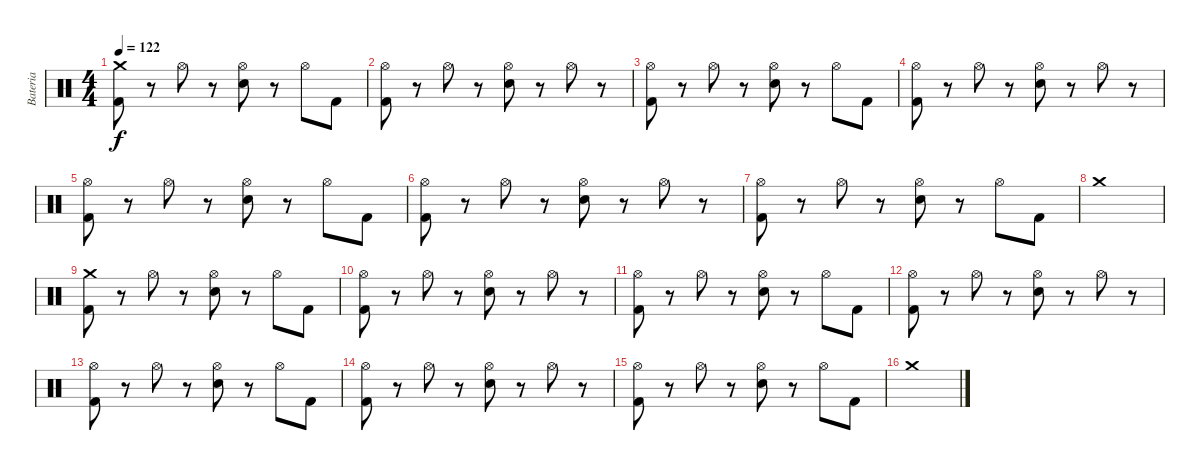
\track ("Bateria" "Bateria") {instrument percussion}
\staff {score}
\articulation defaults
\ts (4 4)
\tempo 122
\clef neutral
\ks c
("Crash medium (hit)" "Kick (hit) 2").8{dy f} r.8 "Hi-Hat (open)".8 r.8 ("Hi-Hat (open)" "Snare (hit) 2").8 r.8 "Hi-Hat (open)".8 "Kick (hit) 2".8 |
("Hi-Hat (open)" "Kick (hit) 2").8 r.8 "Hi-Hat (open)".8 r.8 ("Hi-Hat (open)" "Snare (hit) 2").8 r.8 "Hi-Hat (open)".8 r.8 |
("Hi-Hat (open)" "Kick (hit) 2").8 r.8 "Hi-Hat (open)".8 r.8 ("Hi-Hat (open)" "Snare (hit) 2").8 r.8 "Hi-Hat (open)".8 "Kick (hit) 2".8 |
("Hi-Hat (open)" "Kick (hit) 2").8 r.8 "Hi-Hat (open)".8 r.8 ("Hi-Hat (open)" "Snare (hit) 2").8 r.8 "Hi-Hat (open)".8 r.8 |
("Hi-Hat (open)" "Kick (hit) 2").8 r.8 "Hi-Hat (open)".8 r.8 ("Hi-Hat (open)" "Snare (hit) 2").8 r.8 "Hi-Hat (open)".8 "Kick (hit) 2".8 |
("Hi-Hat (open)" "Kick (hit) 2").8 r.8 "Hi-Hat (open)".8 r.8 ("Hi-Hat (open)" "Snare (hit) 2").8 r.8 "Hi-Hat (open)".8 r.8 |
("Hi-Hat (open)" "Kick (hit) 2").8 r.8 "Hi-Hat (open)".8 r.8 ("Hi-Hat (open)" "Snare (hit) 2").8 r.8 "Hi-Hat (open)".8 "Kick (hit) 2".8 |
"Crash medium (hit)".1 |
("Crash medium (hit)" "Kick (hit) 2").8 r.8 "Hi-Hat (open)".8 r.8 ("Hi-Hat (open)" "Snare (hit) 2").8 r.8 "Hi-Hat (open)".8 "Kick (hit) 2".8 |
("Hi-Hat (open)" "Kick (hit) 2").8 r.8 "Hi-Hat (open)".8 r.8 ("Hi-Hat (open)" "Snare (hit) 2").8 r.8 "Hi-Hat (open)".8 r.8 |
("Hi-Hat (open)" "Kick (hit) 2").8 r.8 "Hi-Hat (open)".8 r.8 ("Hi-Hat (open)" "Snare (hit) 2").8 r.8 "Hi-Hat (open)".8 "Kick (hit) 2".8 |
("Hi-Hat (open)" "Kick (hit) 2").8 r.8 "Hi-Hat (open)".8 r.8 ("Hi-Hat (open)" "Snare (hit) 2").8 r.8 "Hi-Hat (open)".8 r.8 |
("Hi-Hat (open)" "Kick (hit) 2").8 r.8 "Hi-Hat (open)".8 r.8 ("Hi-Hat (open)" "Snare (hit) 2").8 r.8 "Hi-Hat (open)".8 "Kick (hit) 2".8 |
("Hi-Hat (open)" "Kick (hit) 2").8 r.8 "Hi-Hat (open)".8 r.8 ("Hi-Hat (open)" "Snare (hit) 2").8 r.8 "Hi-Hat (open)".8 r.8 |
("Hi-Hat (open)" "Kick (hit) 2").8 r.8 "Hi-Hat (open)".8 r.8 ("Hi-Hat (open)" "Snare (hit) 2").8 r.8 "Hi-Hat (open)".8 "Kick (hit) 2".8 |
"Crash medium (hit)".1
